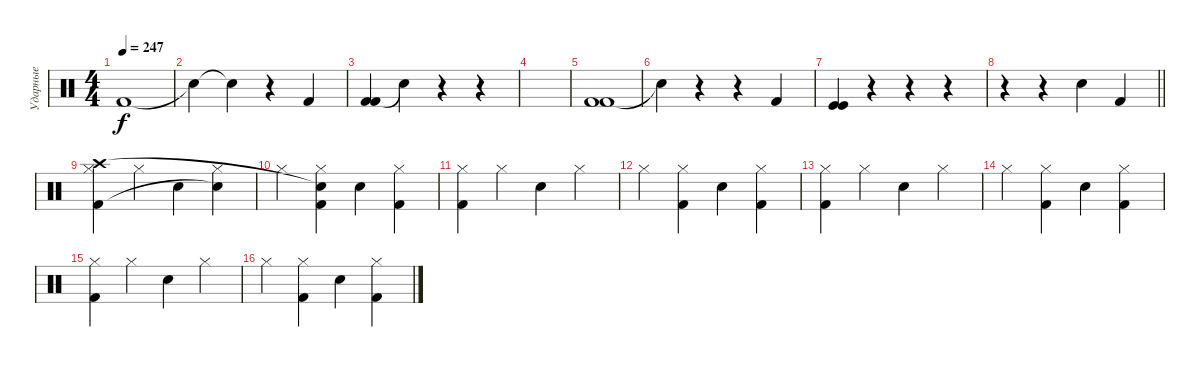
\track ("Ударные" "Ударные") {instrument percussion}
\staff {score}
\articulation defaults
\ts (4 4)
\tempo 247
\clef neutral
\ks c "Kick (hit) 2".1{dy f}
|
"Snare (hit)"{t}.4 "Snare (hit)"{t}.4 r.4 "Kick (hit) 2".4 |
("Kick (hit) 2" "Kick (hit) 2").4 "Snare (hit)"{t}.4 r.4 r.4 |
|
("Kick (hit) 2" "Kick (hit) 2").1 |
"Snare (hit)"{t}.4 r.4 r.4 "Kick (hit) 2".4 |
("Kick (hit)" "Kick (hit)").4 r.4 r.4 r.4 |
\barLineRight lightlight
r.4 r.4 "Snare (hit) 2".4 "Kick (hit) 2".4 |
("Hi-Hat (closed)" "Kick (hit) 2" "Crash high (hit)").4 "Hi-Hat (closed)".4 "Snare (hit) 2".4 ("Hi-Hat (closed)" "Snare (hit)"{t}).4 |
"Hi-Hat (closed)".4 ("Hi-Hat (closed)" "Kick (hit) 2" "Snare (hit)"{t}).4 "Snare (hit) 2".4 ("Hi-Hat (closed)" "Kick (hit) 2").4 |
("Hi-Hat (closed)" "Kick (hit) 2").4 "Hi-Hat (closed)".4 "Snare (hit) 2".4 "Hi-Hat (closed)".4 |
"Hi-Hat (closed)".4 ("Hi-Hat (closed)" "Kick (hit) 2").4 "Snare (hit) 2".4 ("Hi-Hat (closed)" "Kick (hit) 2").4 |
("Hi-Hat (closed)" "Kick (hit) 2").4 "Hi-Hat (closed)".4 "Snare (hit) 2".4 "Hi-Hat (closed)".4 |
"Hi-Hat (closed)".4 ("Hi-Hat (closed)" "Kick (hit) 2").4 "Snare (hit) 2".4 ("Hi-Hat (closed)" "Kick (hit) 2").4 |
("Hi-Hat (closed)" "Kick (hit) 2").4 "Hi-Hat (closed)".4 "Snare (hit) 2".4 "Hi-Hat (closed)".4 |
"Hi-Hat (closed)".4 ("Hi-Hat (closed)" "Kick (hit) 2").4 "Snare (hit) 2".4 ("Hi-Hat (closed)" "Kick (hit) 2").4
